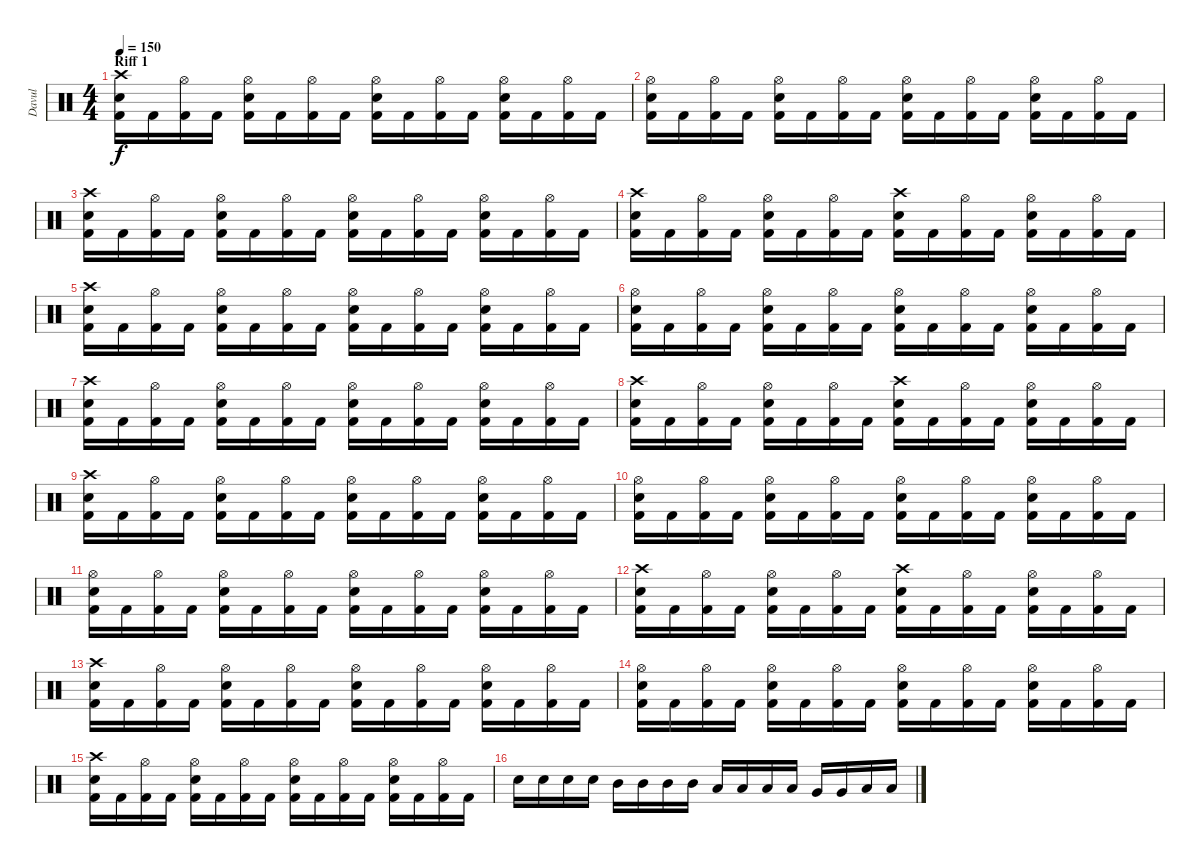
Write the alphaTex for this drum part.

\track ("Davul" "Davul") {instrument percussion}
\staff {score}
\articulation defaults
\ts (4 4)
\section ("" "Riff 1")
\tempo 150
\clef neutral
\ks c
("Crash high (hit)" "Electric Snare (hit)" "Kick (hit) 2").16{dy f} "Kick (hit) 2".16 ("Hi-Hat (open)" "Kick (hit) 2").16 "Kick (hit) 2".16 ("Hi-Hat (open)" "Electric Snare (hit)" "Kick (hit) 2").16 "Kick (hit) 2".16 ("Hi-Hat (open)" "Kick (hit) 2").16 "Kick (hit) 2".16 ("Hi-Hat (open)" "Electric Snare (hit)" "Kick (hit) 2").16 "Kick (hit) 2".16 ("Hi-Hat (open)" "Kick (hit) 2").16 "Kick (hit) 2".16 ("Hi-Hat (open)" "Electric Snare (hit)" "Kick (hit) 2").16 "Kick (hit) 2".16 ("Hi-Hat (open)" "Kick (hit) 2").16 "Kick (hit) 2".16 |
("Hi-Hat (open)" "Electric Snare (hit)" "Kick (hit) 2").16 "Kick (hit) 2".16 ("Hi-Hat (open)" "Kick (hit) 2").16 "Kick (hit) 2".16 ("Hi-Hat (open)" "Electric Snare (hit)" "Kick (hit) 2").16 "Kick (hit) 2".16 ("Hi-Hat (open)" "Kick (hit) 2").16 "Kick (hit) 2".16 ("Hi-Hat (open)" "Electric Snare (hit)" "Kick (hit) 2").16 "Kick (hit) 2".16 ("Hi-Hat (open)" "Kick (hit) 2").16 "Kick (hit) 2".16 ("Hi-Hat (open)" "Electric Snare (hit)" "Kick (hit) 2").16 "Kick (hit) 2".16 ("Hi-Hat (open)" "Kick (hit) 2").16 "Kick (hit) 2".16 |
("Crash high (hit)" "Electric Snare (hit)" "Kick (hit) 2").16 "Kick (hit) 2".16 ("Hi-Hat (open)" "Kick (hit) 2").16 "Kick (hit) 2".16 ("Hi-Hat (open)" "Electric Snare (hit)" "Kick (hit) 2").16 "Kick (hit) 2".16 ("Hi-Hat (open)" "Kick (hit) 2").16 "Kick (hit) 2".16 ("Hi-Hat (open)" "Electric Snare (hit)" "Kick (hit) 2").16 "Kick (hit) 2".16 ("Hi-Hat (open)" "Kick (hit) 2").16 "Kick (hit) 2".16 ("Hi-Hat (open)" "Electric Snare (hit)" "Kick (hit) 2").16 "Kick (hit) 2".16 ("Hi-Hat (open)" "Kick (hit) 2").16 "Kick (hit) 2".16 |
("Crash high (hit)" "Electric Snare (hit)" "Kick (hit) 2").16 "Kick (hit) 2".16 ("Hi-Hat (open)" "Kick (hit) 2").16 "Kick (hit) 2".16 ("Hi-Hat (open)" "Electric Snare (hit)" "Kick (hit) 2").16 "Kick (hit) 2".16 ("Hi-Hat (open)" "Kick (hit) 2").16 "Kick (hit) 2".16 ("Crash high (hit)" "Electric Snare (hit)" "Kick (hit) 2").16 "Kick (hit) 2".16 ("Hi-Hat (open)" "Kick (hit) 2").16 "Kick (hit) 2".16 ("Hi-Hat (open)" "Electric Snare (hit)" "Kick (hit) 2").16 "Kick (hit) 2".16 ("Hi-Hat (open)" "Kick (hit) 2").16 "Kick (hit) 2".16 |
("Crash high (hit)" "Electric Snare (hit)" "Kick (hit) 2").16 "Kick (hit) 2".16 ("Hi-Hat (open)" "Kick (hit) 2").16 "Kick (hit) 2".16 ("Hi-Hat (open)" "Electric Snare (hit)" "Kick (hit) 2").16 "Kick (hit) 2".16 ("Hi-Hat (open)" "Kick (hit) 2").16 "Kick (hit) 2".16 ("Hi-Hat (open)" "Electric Snare (hit)" "Kick (hit) 2").16 "Kick (hit) 2".16 ("Hi-Hat (open)" "Kick (hit) 2").16 "Kick (hit) 2".16 ("Hi-Hat (open)" "Electric Snare (hit)" "Kick (hit) 2").16 "Kick (hit) 2".16 ("Hi-Hat (open)" "Kick (hit) 2").16 "Kick (hit) 2".16 |
("Hi-Hat (open)" "Electric Snare (hit)" "Kick (hit) 2").16 "Kick (hit) 2".16 ("Hi-Hat (open)" "Kick (hit) 2").16 "Kick (hit) 2".16 ("Hi-Hat (open)" "Electric Snare (hit)" "Kick (hit) 2").16 "Kick (hit) 2".16 ("Hi-Hat (open)" "Kick (hit) 2").16 "Kick (hit) 2".16 ("Hi-Hat (open)" "Electric Snare (hit)" "Kick (hit) 2").16 "Kick (hit) 2".16 ("Hi-Hat (open)" "Kick (hit) 2").16 "Kick (hit) 2".16 ("Hi-Hat (open)" "Electric Snare (hit)" "Kick (hit) 2").16 "Kick (hit) 2".16 ("Hi-Hat (open)" "Kick (hit) 2").16 "Kick (hit) 2".16 |
("Crash high (hit)" "Electric Snare (hit)" "Kick (hit) 2").16 "Kick (hit) 2".16 ("Hi-Hat (open)" "Kick (hit) 2").16 "Kick (hit) 2".16 ("Hi-Hat (open)" "Electric Snare (hit)" "Kick (hit) 2").16 "Kick (hit) 2".16 ("Hi-Hat (open)" "Kick (hit) 2").16 "Kick (hit) 2".16 ("Hi-Hat (open)" "Electric Snare (hit)" "Kick (hit) 2").16 "Kick (hit) 2".16 ("Hi-Hat (open)" "Kick (hit) 2").16 "Kick (hit) 2".16 ("Hi-Hat (open)" "Electric Snare (hit)" "Kick (hit) 2").16 "Kick (hit) 2".16 ("Hi-Hat (open)" "Kick (hit) 2").16 "Kick (hit) 2".16 |
("Crash high (hit)" "Electric Snare (hit)" "Kick (hit) 2").16 "Kick (hit) 2".16 ("Hi-Hat (open)" "Kick (hit) 2").16 "Kick (hit) 2".16 ("Hi-Hat (open)" "Electric Snare (hit)" "Kick (hit) 2").16 "Kick (hit) 2".16 ("Hi-Hat (open)" "Kick (hit) 2").16 "Kick (hit) 2".16 ("Crash high (hit)" "Electric Snare (hit)" "Kick (hit) 2").16 "Kick (hit) 2".16 ("Hi-Hat (open)" "Kick (hit) 2").16 "Kick (hit) 2".16 ("Hi-Hat (open)" "Electric Snare (hit)" "Kick (hit) 2").16 "Kick (hit) 2".16 ("Hi-Hat (open)" "Kick (hit) 2").16 "Kick (hit) 2".16 |
("Crash high (hit)" "Electric Snare (hit)" "Kick (hit) 2").16 "Kick (hit) 2".16 ("Hi-Hat (open)" "Kick (hit) 2").16 "Kick (hit) 2".16 ("Hi-Hat (open)" "Electric Snare (hit)" "Kick (hit) 2").16 "Kick (hit) 2".16 ("Hi-Hat (open)" "Kick (hit) 2").16 "Kick (hit) 2".16 ("Hi-Hat (open)" "Electric Snare (hit)" "Kick (hit) 2").16 "Kick (hit) 2".16 ("Hi-Hat (open)" "Kick (hit) 2").16 "Kick (hit) 2".16 ("Hi-Hat (open)" "Electric Snare (hit)" "Kick (hit) 2").16 "Kick (hit) 2".16 ("Hi-Hat (open)" "Kick (hit) 2").16 "Kick (hit) 2".16 |
("Hi-Hat (open)" "Electric Snare (hit)" "Kick (hit) 2").16 "Kick (hit) 2".16 ("Hi-Hat (open)" "Kick (hit) 2").16 "Kick (hit) 2".16 ("Hi-Hat (open)" "Electric Snare (hit)" "Kick (hit) 2").16 "Kick (hit) 2".16 ("Hi-Hat (open)" "Kick (hit) 2").16 "Kick (hit) 2".16 ("Hi-Hat (open)" "Electric Snare (hit)" "Kick (hit) 2").16 "Kick (hit) 2".16 ("Hi-Hat (open)" "Kick (hit) 2").16 "Kick (hit) 2".16 ("Hi-Hat (open)" "Electric Snare (hit)" "Kick (hit) 2").16 "Kick (hit) 2".16 ("Hi-Hat (open)" "Kick (hit) 2").16 "Kick (hit) 2".16 |
("Hi-Hat (open)" "Electric Snare (hit)" "Kick (hit) 2").16 "Kick (hit) 2".16 ("Hi-Hat (open)" "Kick (hit) 2").16 "Kick (hit) 2".16 ("Hi-Hat (open)" "Electric Snare (hit)" "Kick (hit) 2").16 "Kick (hit) 2".16 ("Hi-Hat (open)" "Kick (hit) 2").16 "Kick (hit) 2".16 ("Hi-Hat (open)" "Electric Snare (hit)" "Kick (hit) 2").16 "Kick (hit) 2".16 ("Hi-Hat (open)" "Kick (hit) 2").16 "Kick (hit) 2".16 ("Hi-Hat (open)" "Electric Snare (hit)" "Kick (hit) 2").16 "Kick (hit) 2".16 ("Hi-Hat (open)" "Kick (hit) 2").16 "Kick (hit) 2".16 |
("Crash high (hit)" "Electric Snare (hit)" "Kick (hit) 2").16 "Kick (hit) 2".16 ("Hi-Hat (open)" "Kick (hit) 2").16 "Kick (hit) 2".16 ("Hi-Hat (open)" "Electric Snare (hit)" "Kick (hit) 2").16 "Kick (hit) 2".16 ("Hi-Hat (open)" "Kick (hit) 2").16 "Kick (hit) 2".16 ("Crash high (hit)" "Electric Snare (hit)" "Kick (hit) 2").16 "Kick (hit) 2".16 ("Hi-Hat (open)" "Kick (hit) 2").16 "Kick (hit) 2".16 ("Hi-Hat (open)" "Electric Snare (hit)" "Kick (hit) 2").16 "Kick (hit) 2".16 ("Hi-Hat (open)" "Kick (hit) 2").16 "Kick (hit) 2".16 |
("Crash high (hit)" "Electric Snare (hit)" "Kick (hit) 2").16 "Kick (hit) 2".16 ("Hi-Hat (open)" "Kick (hit) 2").16 "Kick (hit) 2".16 ("Hi-Hat (open)" "Electric Snare (hit)" "Kick (hit) 2").16 "Kick (hit) 2".16 ("Hi-Hat (open)" "Kick (hit) 2").16 "Kick (hit) 2".16 ("Hi-Hat (open)" "Electric Snare (hit)" "Kick (hit) 2").16 "Kick (hit) 2".16 ("Hi-Hat (open)" "Kick (hit) 2").16 "Kick (hit) 2".16 ("Hi-Hat (open)" "Electric Snare (hit)" "Kick (hit) 2").16 "Kick (hit) 2".16 ("Hi-Hat (open)" "Kick (hit) 2").16 "Kick (hit) 2".16 |
("Hi-Hat (open)" "Electric Snare (hit)" "Kick (hit) 2").16 "Kick (hit) 2".16 ("Hi-Hat (open)" "Kick (hit) 2").16 "Kick (hit) 2".16 ("Hi-Hat (open)" "Electric Snare (hit)" "Kick (hit) 2").16 "Kick (hit) 2".16 ("Hi-Hat (open)" "Kick (hit) 2").16 "Kick (hit) 2".16 ("Hi-Hat (open)" "Electric Snare (hit)" "Kick (hit) 2").16 "Kick (hit) 2".16 ("Hi-Hat (open)" "Kick (hit) 2").16 "Kick (hit) 2".16 ("Hi-Hat (open)" "Electric Snare (hit)" "Kick (hit) 2").16 "Kick (hit) 2".16 ("Hi-Hat (open)" "Kick (hit) 2").16 "Kick (hit) 2".16 |
("Crash high (hit)" "Electric Snare (hit)" "Kick (hit) 2").16 "Kick (hit) 2".16 ("Hi-Hat (open)" "Kick (hit) 2").16 "Kick (hit) 2".16 ("Hi-Hat (open)" "Electric Snare (hit)" "Kick (hit) 2").16 "Kick (hit) 2".16 ("Hi-Hat (open)" "Kick (hit) 2").16 "Kick (hit) 2".16 ("Hi-Hat (open)" "Electric Snare (hit)" "Kick (hit) 2").16 "Kick (hit) 2".16 ("Hi-Hat (open)" "Kick (hit) 2").16 "Kick (hit) 2".16 ("Hi-Hat (open)" "Electric Snare (hit)" "Kick (hit) 2").16 "Kick (hit) 2".16 ("Hi-Hat (open)" "Kick (hit) 2").16 "Kick (hit) 2".16 |
"Electric Snare (hit)".16 "Electric Snare (hit)".16 "Electric Snare (hit)".16 "Electric Snare (hit)".16 "Mid Tom (hit)".16 "Mid Tom (hit)".16 "Mid Tom (hit)".16 "Mid Tom (hit)".16 "Low Tom (hit)".16 "Low Tom (hit)".16 "Low Tom (hit)".16 "Low Tom (hit)".16 "Very Low Tom (hit)".16 "Very Low Tom (hit)".16 "Low Floor Tom (hit)".16 "Low Floor Tom (hit)".16
